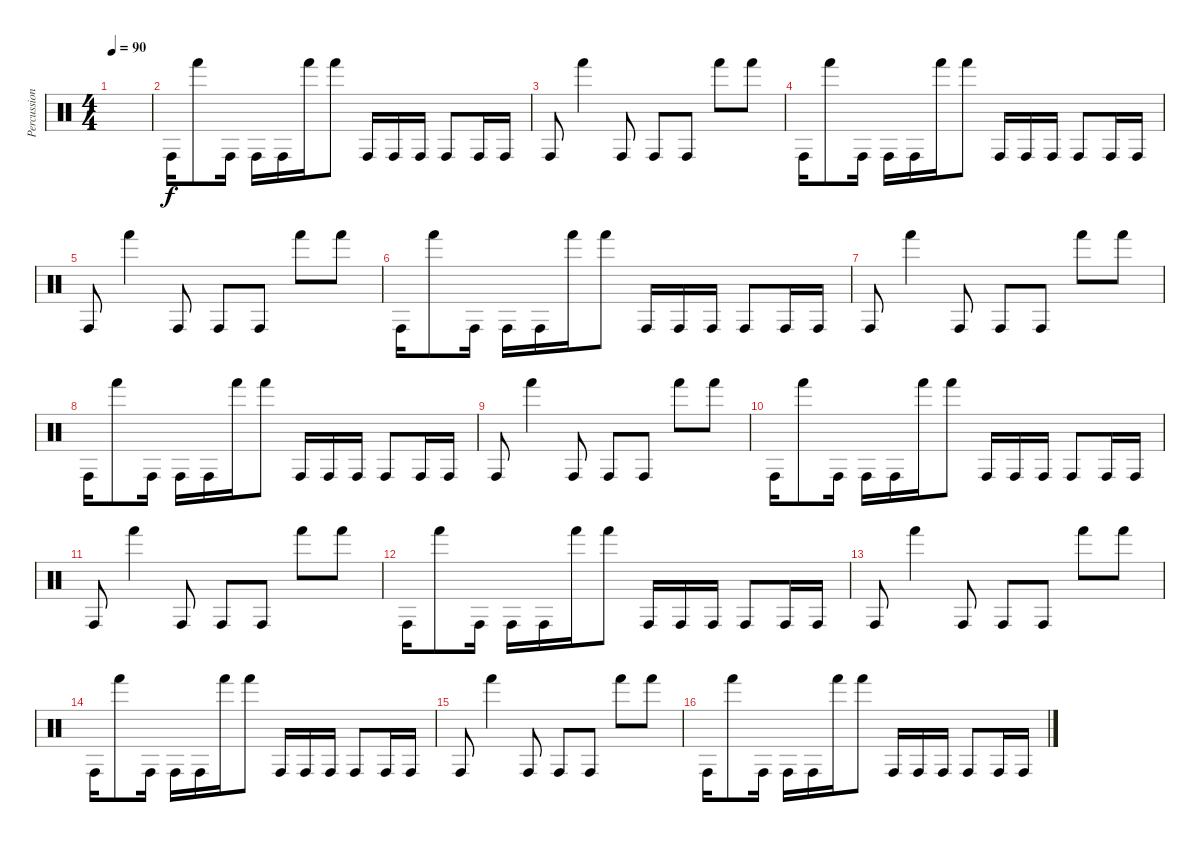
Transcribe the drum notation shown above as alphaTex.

\track ("Percussions" "Percussion") {instrument percussion}
\staff {score}
\articulation defaults
\ts (4 4)
\tempo 90
\clef neutral
\ks c
|
"Conga high (hit)".16 "Hand (hit)".8 "Conga high (hit)".16 "Conga high (hit)".16 "Conga high (hit)".16 "Hand (hit)".16 "Hand (hit)".8 "Conga high (hit)".16 "Conga high (hit)".16 "Conga high (hit)".16 "Conga high (hit)".8 "Conga high (hit)".16 "Conga high (hit)".16 |
"Conga high (hit)".8 "Hand (hit)".4 "Conga high (hit)".8 "Conga high (hit)".8 "Conga high (hit)".8 "Hand (hit)".8 "Hand (hit)".8 |
"Conga high (hit)".16 "Hand (hit)".8 "Conga high (hit)".16 "Conga high (hit)".16 "Conga high (hit)".16 "Hand (hit)".16 "Hand (hit)".8 "Conga high (hit)".16 "Conga high (hit)".16 "Conga high (hit)".16 "Conga high (hit)".8 "Conga high (hit)".16 "Conga high (hit)".16 |
"Conga high (hit)".8 "Hand (hit)".4 "Conga high (hit)".8 "Conga high (hit)".8 "Conga high (hit)".8 "Hand (hit)".8 "Hand (hit)".8 |
"Conga high (hit)".16 "Hand (hit)".8 "Conga high (hit)".16 "Conga high (hit)".16 "Conga high (hit)".16 "Hand (hit)".16 "Hand (hit)".8 "Conga high (hit)".16 "Conga high (hit)".16 "Conga high (hit)".16 "Conga high (hit)".8 "Conga high (hit)".16 "Conga high (hit)".16 |
"Conga high (hit)".8 "Hand (hit)".4 "Conga high (hit)".8 "Conga high (hit)".8 "Conga high (hit)".8 "Hand (hit)".8 "Hand (hit)".8 |
"Conga high (hit)".16 "Hand (hit)".8 "Conga high (hit)".16 "Conga high (hit)".16 "Conga high (hit)".16 "Hand (hit)".16 "Hand (hit)".8 "Conga high (hit)".16 "Conga high (hit)".16 "Conga high (hit)".16 "Conga high (hit)".8 "Conga high (hit)".16 "Conga high (hit)".16 |
"Conga high (hit)".8 "Hand (hit)".4 "Conga high (hit)".8 "Conga high (hit)".8 "Conga high (hit)".8 "Hand (hit)".8 "Hand (hit)".8 |
"Conga high (hit)".16 "Hand (hit)".8 "Conga high (hit)".16 "Conga high (hit)".16 "Conga high (hit)".16 "Hand (hit)".16 "Hand (hit)".8 "Conga high (hit)".16 "Conga high (hit)".16 "Conga high (hit)".16 "Conga high (hit)".8 "Conga high (hit)".16 "Conga high (hit)".16 |
"Conga high (hit)".8 "Hand (hit)".4 "Conga high (hit)".8 "Conga high (hit)".8 "Conga high (hit)".8 "Hand (hit)".8 "Hand (hit)".8 |
"Conga high (hit)".16 "Hand (hit)".8 "Conga high (hit)".16 "Conga high (hit)".16 "Conga high (hit)".16 "Hand (hit)".16 "Hand (hit)".8 "Conga high (hit)".16 "Conga high (hit)".16 "Conga high (hit)".16 "Conga high (hit)".8 "Conga high (hit)".16 "Conga high (hit)".16 |
"Conga high (hit)".8 "Hand (hit)".4 "Conga high (hit)".8 "Conga high (hit)".8 "Conga high (hit)".8 "Hand (hit)".8 "Hand (hit)".8 |
"Conga high (hit)".16 "Hand (hit)".8 "Conga high (hit)".16 "Conga high (hit)".16 "Conga high (hit)".16 "Hand (hit)".16 "Hand (hit)".8 "Conga high (hit)".16 "Conga high (hit)".16 "Conga high (hit)".16 "Conga high (hit)".8 "Conga high (hit)".16 "Conga high (hit)".16 |
"Conga high (hit)".8 "Hand (hit)".4 "Conga high (hit)".8 "Conga high (hit)".8 "Conga high (hit)".8 "Hand (hit)".8 "Hand (hit)".8 |
"Conga high (hit)".16 "Hand (hit)".8 "Conga high (hit)".16 "Conga high (hit)".16 "Conga high (hit)".16 "Hand (hit)".16 "Hand (hit)".8 "Conga high (hit)".16 "Conga high (hit)".16 "Conga high (hit)".16 "Conga high (hit)".8 "Conga high (hit)".16 "Conga high (hit)".16
